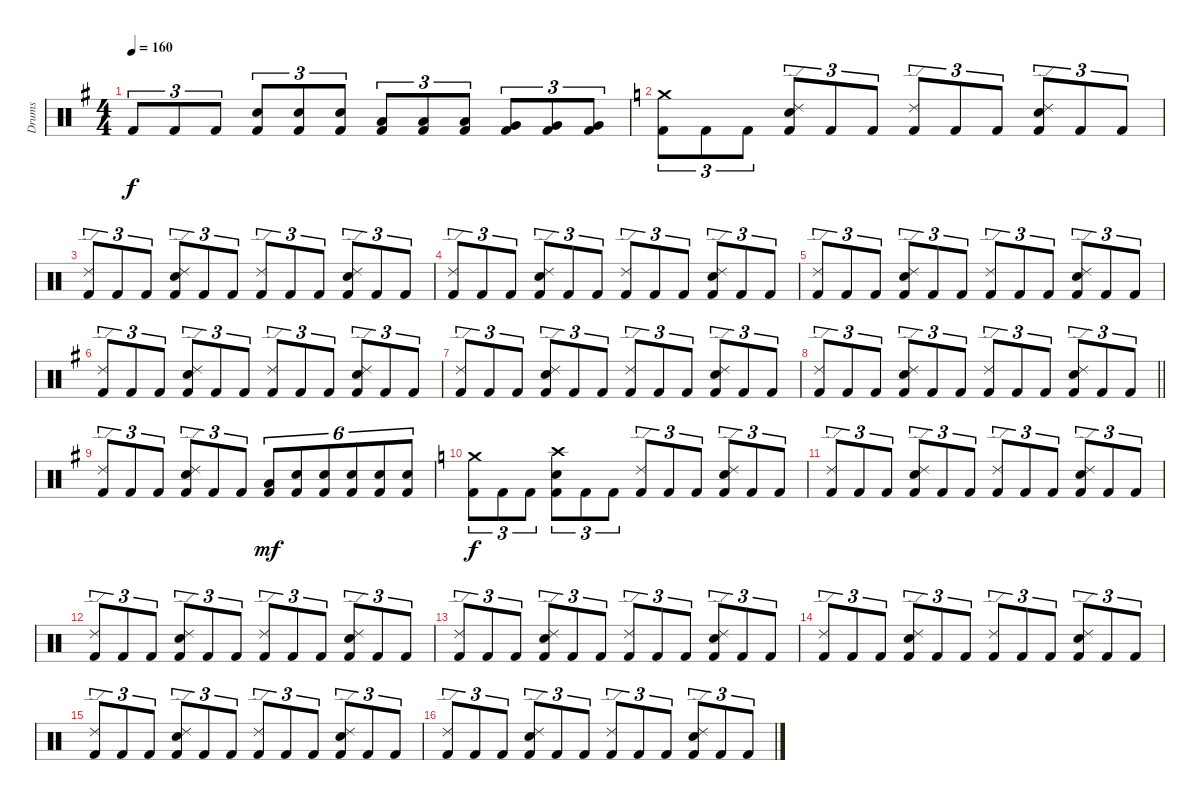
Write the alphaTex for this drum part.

\track ("Drums" "Drums") {instrument percussion}
\staff {score}
\articulation defaults
\ts (4 4)
\tempo 160
\clef neutral
\ks eminor "Kick (hit) 2".8{tu (3 2) dy f} "Kick (hit) 2".8{tu (3 2)} "Kick (hit) 2".8{tu (3 2)}
("Snare (hit) 2" "Kick (hit) 2").8{tu (3 2)} ("Snare (hit) 2" "Kick (hit) 2").8{tu (3 2)} ("Snare (hit) 2" "Kick (hit) 2").8{tu (3 2)} ("Low Tom (hit)" "Kick (hit) 2").8{tu (3 2)} ("Low Tom (hit)" "Kick (hit) 2").8{tu (3 2)} ("Low Tom (hit)" "Kick (hit) 2").8{tu (3 2)} ("Very Low Tom (hit)" "Kick (hit) 2").8{tu (3 2)} ("Very Low Tom (hit)" "Kick (hit) 2").8{tu (3 2)} ("Very Low Tom (hit)" "Kick (hit) 2").8{tu (3 2)} |
\ks c
("Crash medium (hit)" "Kick (hit) 2").8{tu (3 2)} "Kick (hit) 2".8{tu (3 2)} "Kick (hit) 2".8{tu (3 2)} ("Ride (edge) 2" "Snare (hit) 2" "Kick (hit) 2").8{tu (3 2)} "Kick (hit) 2".8{tu (3 2)} "Kick (hit) 2".8{tu (3 2)} ("Ride (edge) 2" "Kick (hit) 2").8{tu (3 2)} "Kick (hit) 2".8{tu (3 2)} "Kick (hit) 2".8{tu (3 2)} ("Ride (edge) 2" "Snare (hit) 2" "Kick (hit) 2").8{tu (3 2)} "Kick (hit) 2".8{tu (3 2)} "Kick (hit) 2".8{tu (3 2)} |
("Ride (edge) 2" "Kick (hit) 2").8{tu (3 2)} "Kick (hit) 2".8{tu (3 2)} "Kick (hit) 2".8{tu (3 2)} ("Ride (edge) 2" "Snare (hit) 2" "Kick (hit) 2").8{tu (3 2)} "Kick (hit) 2".8{tu (3 2)} "Kick (hit) 2".8{tu (3 2)} ("Ride (edge) 2" "Kick (hit) 2").8{tu (3 2)} "Kick (hit) 2".8{tu (3 2)} "Kick (hit) 2".8{tu (3 2)} ("Ride (edge) 2" "Snare (hit) 2" "Kick (hit) 2").8{tu (3 2)} "Kick (hit) 2".8{tu (3 2)} "Kick (hit) 2".8{tu (3 2)} |
("Ride (edge) 2" "Kick (hit) 2").8{tu (3 2)} "Kick (hit) 2".8{tu (3 2)} "Kick (hit) 2".8{tu (3 2)} ("Ride (edge) 2" "Snare (hit) 2" "Kick (hit) 2").8{tu (3 2)} "Kick (hit) 2".8{tu (3 2)} "Kick (hit) 2".8{tu (3 2)} ("Ride (edge) 2" "Kick (hit) 2").8{tu (3 2)} "Kick (hit) 2".8{tu (3 2)} "Kick (hit) 2".8{tu (3 2)} ("Ride (edge) 2" "Snare (hit) 2" "Kick (hit) 2").8{tu (3 2)} "Kick (hit) 2".8{tu (3 2)} "Kick (hit) 2".8{tu (3 2)} |
("Ride (edge) 2" "Kick (hit) 2").8{tu (3 2)} "Kick (hit) 2".8{tu (3 2)} "Kick (hit) 2".8{tu (3 2)} ("Ride (edge) 2" "Snare (hit) 2" "Kick (hit) 2").8{tu (3 2)} "Kick (hit) 2".8{tu (3 2)} "Kick (hit) 2".8{tu (3 2)} ("Ride (edge) 2" "Kick (hit) 2").8{tu (3 2)} "Kick (hit) 2".8{tu (3 2)} "Kick (hit) 2".8{tu (3 2)} ("Ride (edge) 2" "Snare (hit) 2" "Kick (hit) 2").8{tu (3 2)} "Kick (hit) 2".8{tu (3 2)} "Kick (hit) 2".8{tu (3 2)} |
\ks eminor
("Ride (edge) 2" "Kick (hit) 2").8{tu (3 2)} "Kick (hit) 2".8{tu (3 2)} "Kick (hit) 2".8{tu (3 2)} ("Ride (edge) 2" "Snare (hit) 2" "Kick (hit) 2").8{tu (3 2)} "Kick (hit) 2".8{tu (3 2)} "Kick (hit) 2".8{tu (3 2)} ("Ride (edge) 2" "Kick (hit) 2").8{tu (3 2)} "Kick (hit) 2".8{tu (3 2)} "Kick (hit) 2".8{tu (3 2)} ("Ride (edge) 2" "Snare (hit) 2" "Kick (hit) 2").8{tu (3 2)} "Kick (hit) 2".8{tu (3 2)} "Kick (hit) 2".8{tu (3 2)} |
("Ride (edge) 2" "Kick (hit) 2").8{tu (3 2)} "Kick (hit) 2".8{tu (3 2)} "Kick (hit) 2".8{tu (3 2)} ("Ride (edge) 2" "Snare (hit) 2" "Kick (hit) 2").8{tu (3 2)} "Kick (hit) 2".8{tu (3 2)} "Kick (hit) 2".8{tu (3 2)} ("Ride (edge) 2" "Kick (hit) 2").8{tu (3 2)} "Kick (hit) 2".8{tu (3 2)} "Kick (hit) 2".8{tu (3 2)} ("Ride (edge) 2" "Snare (hit) 2" "Kick (hit) 2").8{tu (3 2)} "Kick (hit) 2".8{tu (3 2)} "Kick (hit) 2".8{tu (3 2)} |
\barLineRight lightlight
("Ride (edge) 2" "Kick (hit) 2").8{tu (3 2)} "Kick (hit) 2".8{tu (3 2)} "Kick (hit) 2".8{tu (3 2)} ("Ride (edge) 2" "Snare (hit) 2" "Kick (hit) 2").8{tu (3 2)} "Kick (hit) 2".8{tu (3 2)} "Kick (hit) 2".8{tu (3 2)} ("Ride (edge) 2" "Kick (hit) 2").8{tu (3 2)} "Kick (hit) 2".8{tu (3 2)} "Kick (hit) 2".8{tu (3 2)} ("Ride (edge) 2" "Snare (hit) 2" "Kick (hit) 2").8{tu (3 2)} "Kick (hit) 2".8{tu (3 2)} "Kick (hit) 2".8{tu (3 2)} |
\section ("" "")
("Ride (edge) 2" "Kick (hit) 2").8{tu (3 2)} "Kick (hit) 2".8{tu (3 2)} "Kick (hit) 2".8{tu (3 2)} ("Ride (edge) 2" "Snare (hit) 2" "Kick (hit) 2").8{tu (3 2)} "Kick (hit) 2".8{tu (3 2)} "Kick (hit) 2".8{tu (3 2)} ("Low Tom (hit)" "Kick (hit) 2").8{tu (6 4) dy mf} ("Snare (hit) 2" "Kick (hit) 2").8{tu (6 4)} ("Snare (hit) 2" "Kick (hit) 2").8{tu (6 4)} ("Snare (hit) 2" "Kick (hit) 2").8{tu (6 4)} ("Snare (hit) 2" "Kick (hit) 2").8{tu (6 4)} ("Snare (hit) 2" "Kick (hit) 2").8{tu (6 4)} |
\ks c
("Crash medium (hit)" "Kick (hit) 2").8{tu (3 2) dy f} "Kick (hit) 2".8{tu (3 2)} "Kick (hit) 2".8{tu (3 2)} ("Crash high (hit)" "Snare (hit) 2" "Kick (hit) 2").8{tu (3 2)} "Kick (hit) 2".8{tu (3 2)} "Kick (hit) 2".8{tu (3 2)} ("Ride (edge) 2" "Kick (hit) 2").8{tu (3 2)} "Kick (hit) 2".8{tu (3 2)} "Kick (hit) 2".8{tu (3 2)} ("Ride (edge) 2" "Snare (hit) 2" "Kick (hit) 2").8{tu (3 2)} "Kick (hit) 2".8{tu (3 2)} "Kick (hit) 2".8{tu (3 2)} |
("Ride (edge) 2" "Kick (hit) 2").8{tu (3 2)} "Kick (hit) 2".8{tu (3 2)} "Kick (hit) 2".8{tu (3 2)} ("Ride (edge) 2" "Snare (hit) 2" "Kick (hit) 2").8{tu (3 2)} "Kick (hit) 2".8{tu (3 2)} "Kick (hit) 2".8{tu (3 2)} ("Ride (edge) 2" "Kick (hit) 2").8{tu (3 2)} "Kick (hit) 2".8{tu (3 2)} "Kick (hit) 2".8{tu (3 2)} ("Ride (edge) 2" "Snare (hit) 2" "Kick (hit) 2").8{tu (3 2)} "Kick (hit) 2".8{tu (3 2)} "Kick (hit) 2".8{tu (3 2)} |
("Ride (edge) 2" "Kick (hit) 2").8{tu (3 2)} "Kick (hit) 2".8{tu (3 2)} "Kick (hit) 2".8{tu (3 2)} ("Ride (edge) 2" "Snare (hit) 2" "Kick (hit) 2").8{tu (3 2)} "Kick (hit) 2".8{tu (3 2)} "Kick (hit) 2".8{tu (3 2)} ("Ride (edge) 2" "Kick (hit) 2").8{tu (3 2)} "Kick (hit) 2".8{tu (3 2)} "Kick (hit) 2".8{tu (3 2)} ("Ride (edge) 2" "Snare (hit) 2" "Kick (hit) 2").8{tu (3 2)} "Kick (hit) 2".8{tu (3 2)} "Kick (hit) 2".8{tu (3 2)} |
("Ride (edge) 2" "Kick (hit) 2").8{tu (3 2)} "Kick (hit) 2".8{tu (3 2)} "Kick (hit) 2".8{tu (3 2)} ("Ride (edge) 2" "Snare (hit) 2" "Kick (hit) 2").8{tu (3 2)} "Kick (hit) 2".8{tu (3 2)} "Kick (hit) 2".8{tu (3 2)} ("Ride (edge) 2" "Kick (hit) 2").8{tu (3 2)} "Kick (hit) 2".8{tu (3 2)} "Kick (hit) 2".8{tu (3 2)} ("Ride (edge) 2" "Snare (hit) 2" "Kick (hit) 2").8{tu (3 2)} "Kick (hit) 2".8{tu (3 2)} "Kick (hit) 2".8{tu (3 2)} |
("Ride (edge) 2" "Kick (hit) 2").8{tu (3 2)} "Kick (hit) 2".8{tu (3 2)} "Kick (hit) 2".8{tu (3 2)} ("Ride (edge) 2" "Snare (hit) 2" "Kick (hit) 2").8{tu (3 2)} "Kick (hit) 2".8{tu (3 2)} "Kick (hit) 2".8{tu (3 2)} ("Ride (edge) 2" "Kick (hit) 2").8{tu (3 2)} "Kick (hit) 2".8{tu (3 2)} "Kick (hit) 2".8{tu (3 2)} ("Ride (edge) 2" "Snare (hit) 2" "Kick (hit) 2").8{tu (3 2)} "Kick (hit) 2".8{tu (3 2)} "Kick (hit) 2".8{tu (3 2)} |
("Ride (edge) 2" "Kick (hit) 2").8{tu (3 2)} "Kick (hit) 2".8{tu (3 2)} "Kick (hit) 2".8{tu (3 2)} ("Ride (edge) 2" "Snare (hit) 2" "Kick (hit) 2").8{tu (3 2)} "Kick (hit) 2".8{tu (3 2)} "Kick (hit) 2".8{tu (3 2)} ("Ride (edge) 2" "Kick (hit) 2").8{tu (3 2)} "Kick (hit) 2".8{tu (3 2)} "Kick (hit) 2".8{tu (3 2)} ("Ride (edge) 2" "Snare (hit) 2" "Kick (hit) 2").8{tu (3 2)} "Kick (hit) 2".8{tu (3 2)} "Kick (hit) 2".8{tu (3 2)} |
("Ride (edge) 2" "Kick (hit) 2").8{tu (3 2)} "Kick (hit) 2".8{tu (3 2)} "Kick (hit) 2".8{tu (3 2)} ("Ride (edge) 2" "Snare (hit) 2" "Kick (hit) 2").8{tu (3 2)} "Kick (hit) 2".8{tu (3 2)} "Kick (hit) 2".8{tu (3 2)} ("Ride (edge) 2" "Kick (hit) 2").8{tu (3 2)} "Kick (hit) 2".8{tu (3 2)} "Kick (hit) 2".8{tu (3 2)} ("Ride (edge) 2" "Snare (hit) 2" "Kick (hit) 2").8{tu (3 2)} "Kick (hit) 2".8{tu (3 2)} "Kick (hit) 2".8{tu (3 2)}
